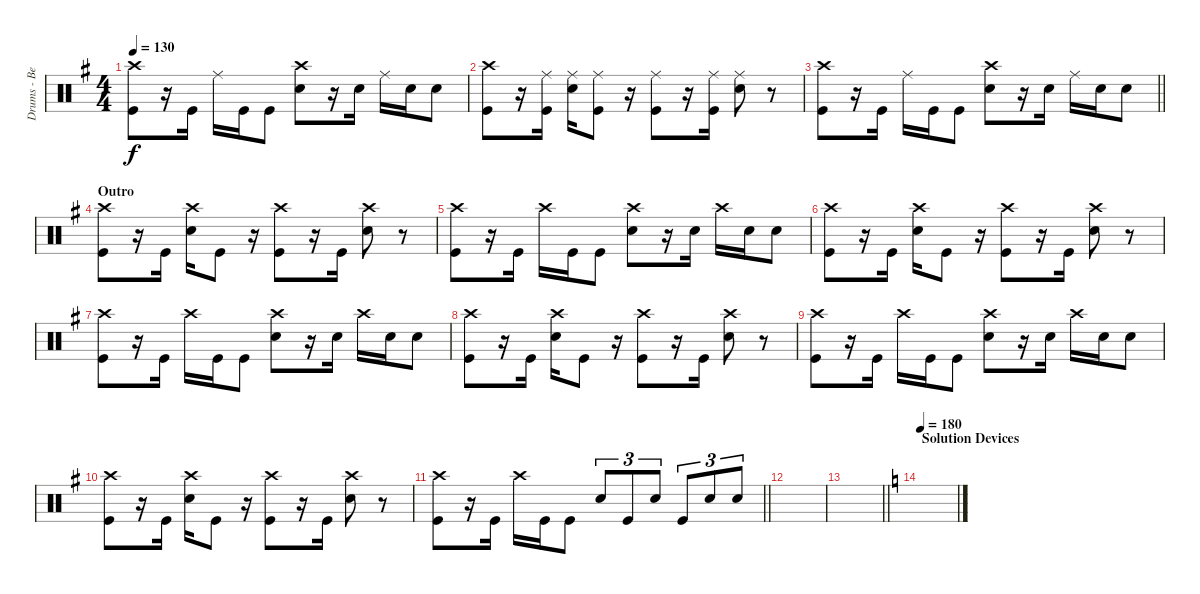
\track ("Drums - Ben Johnston" "Drums - Be") {instrument percussion}
\staff {score}
\articulation defaults
\ts (4 4)
\tempo 130
\clef neutral
\ks g
("Crash high (hit)" "Kick (hit)").8{dy f} r.16 "Kick (hit)".16 "Ride (middle)".16 "Kick (hit)".16 "Kick (hit)".8 ("Crash high (hit)" "Snare (hit) 2").8 r.16 "Snare (hit) 2".16 "Ride (middle)".16 "Snare (hit) 2".16 "Snare (hit) 2".8 |
("Crash high (hit)" "Kick (hit)").8 r.16 ("Ride (middle)" "Kick (hit)").16 ("Ride (middle)" "Snare (hit) 2").16 ("Ride (middle)" "Kick (hit)").8 r.16 ("Ride (middle)" "Kick (hit)").8 r.16 ("Ride (middle)" "Kick (hit)").16 ("Ride (middle)" "Snare (hit) 2").8 r.8 |
\barLineRight lightlight
("Crash high (hit)" "Kick (hit)").8 r.16 "Kick (hit)".16 "Ride (middle)".16 "Kick (hit)".16 "Kick (hit)".8 ("Crash high (hit)" "Snare (hit) 2").8 r.16 "Snare (hit) 2".16 "Ride (middle)".16 "Snare (hit) 2".16 "Snare (hit) 2".8 |
\section ("" "Outro")
("Crash high (hit)" "Kick (hit)").8 r.16 "Kick (hit)".16 ("Crash high (hit)" "Snare (hit) 2").16 "Kick (hit)".8 r.16 ("Crash high (hit)" "Kick (hit)").8 r.16 "Kick (hit)".16 ("Crash high (hit)" "Snare (hit) 2").8 r.8 |
("Crash high (hit)" "Kick (hit)").8 r.16 "Kick (hit)".16 "Crash high (hit)".16 "Kick (hit)".16 "Kick (hit)".8 ("Crash high (hit)" "Snare (hit) 2").8 r.16 "Snare (hit) 2".16 "Crash high (hit)".16 "Snare (hit) 2".16 "Snare (hit) 2".8 |
("Crash high (hit)" "Kick (hit)").8 r.16 "Kick (hit)".16 ("Crash high (hit)" "Snare (hit) 2").16 "Kick (hit)".8 r.16 ("Crash high (hit)" "Kick (hit)").8 r.16 "Kick (hit)".16 ("Crash high (hit)" "Snare (hit) 2").8 r.8 |
("Crash high (hit)" "Kick (hit)").8 r.16 "Kick (hit)".16 "Crash high (hit)".16 "Kick (hit)".16 "Kick (hit)".8 ("Crash high (hit)" "Snare (hit) 2").8 r.16 "Snare (hit) 2".16 "Crash high (hit)".16 "Snare (hit) 2".16 "Snare (hit) 2".8 |
("Crash high (hit)" "Kick (hit)").8 r.16 "Kick (hit)".16 ("Crash high (hit)" "Snare (hit) 2").16 "Kick (hit)".8 r.16 ("Crash high (hit)" "Kick (hit)").8 r.16 "Kick (hit)".16 ("Crash high (hit)" "Snare (hit) 2").8 r.8 |
("Crash high (hit)" "Kick (hit)").8 r.16 "Kick (hit)".16 "Crash high (hit)".16 "Kick (hit)".16 "Kick (hit)".8 ("Crash high (hit)" "Snare (hit) 2").8 r.16 "Snare (hit) 2".16 "Crash high (hit)".16 "Snare (hit) 2".16 "Snare (hit) 2".8 |
("Crash high (hit)" "Kick (hit)").8 r.16 "Kick (hit)".16 ("Crash high (hit)" "Snare (hit) 2").16 "Kick (hit)".8 r.16 ("Crash high (hit)" "Kick (hit)").8 r.16 "Kick (hit)".16 ("Crash high (hit)" "Snare (hit) 2").8 r.8 |
\barLineRight lightlight
("Crash high (hit)" "Kick (hit)").8 r.16 "Kick (hit)".16 "Crash high (hit)".16 "Kick (hit)".16 "Kick (hit)".8 "Snare (hit) 2".8{tu (3 2)} "Kick (hit)".8{tu (3 2)} "Snare (hit) 2".8{tu (3 2)} "Kick (hit)".8{tu (3 2)} "Snare (hit) 2".8{tu (3 2)} "Snare (hit) 2".8{tu (3 2)} |
|
\barLineRight lightlight
|
\section ("" "Solution Devices")
\tempo 180
\ks c
